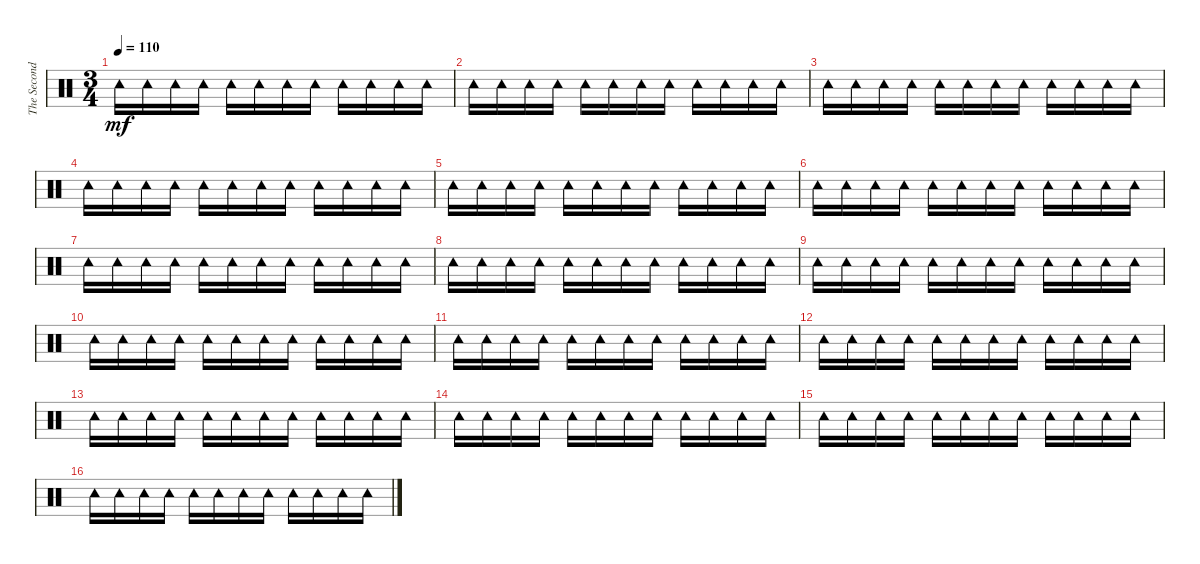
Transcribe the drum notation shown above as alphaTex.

\track ("The Second Drummer" "The Second") {instrument percussion}
\staff {score}
\articulation defaults
\ts (3 4)
\tempo 110
\clef neutral
\ks c "Tambourine (hit)".16{dy mf} "Tambourine (hit)".16 "Tambourine (hit)".16 "Tambourine (hit)".16 "Tambourine (hit)".16 "Tambourine (hit)".16 "Tambourine (hit)".16 "Tambourine (hit)".16 "Tambourine (hit)".16 "Tambourine (hit)".16 "Tambourine (hit)".16 "Tambourine (hit)".16
|
"Tambourine (hit)".16 "Tambourine (hit)".16 "Tambourine (hit)".16 "Tambourine (hit)".16 "Tambourine (hit)".16 "Tambourine (hit)".16 "Tambourine (hit)".16 "Tambourine (hit)".16 "Tambourine (hit)".16 "Tambourine (hit)".16 "Tambourine (hit)".16 "Tambourine (hit)".16 |
"Tambourine (hit)".16 "Tambourine (hit)".16 "Tambourine (hit)".16 "Tambourine (hit)".16 "Tambourine (hit)".16 "Tambourine (hit)".16 "Tambourine (hit)".16 "Tambourine (hit)".16 "Tambourine (hit)".16 "Tambourine (hit)".16 "Tambourine (hit)".16 "Tambourine (hit)".16 |
"Tambourine (hit)".16 "Tambourine (hit)".16 "Tambourine (hit)".16 "Tambourine (hit)".16 "Tambourine (hit)".16 "Tambourine (hit)".16 "Tambourine (hit)".16 "Tambourine (hit)".16 "Tambourine (hit)".16 "Tambourine (hit)".16 "Tambourine (hit)".16 "Tambourine (hit)".16 |
"Tambourine (hit)".16 "Tambourine (hit)".16 "Tambourine (hit)".16 "Tambourine (hit)".16 "Tambourine (hit)".16 "Tambourine (hit)".16 "Tambourine (hit)".16 "Tambourine (hit)".16 "Tambourine (hit)".16 "Tambourine (hit)".16 "Tambourine (hit)".16 "Tambourine (hit)".16 |
"Tambourine (hit)".16 "Tambourine (hit)".16 "Tambourine (hit)".16 "Tambourine (hit)".16 "Tambourine (hit)".16 "Tambourine (hit)".16 "Tambourine (hit)".16 "Tambourine (hit)".16 "Tambourine (hit)".16 "Tambourine (hit)".16 "Tambourine (hit)".16 "Tambourine (hit)".16 |
"Tambourine (hit)".16 "Tambourine (hit)".16 "Tambourine (hit)".16 "Tambourine (hit)".16 "Tambourine (hit)".16 "Tambourine (hit)".16 "Tambourine (hit)".16 "Tambourine (hit)".16 "Tambourine (hit)".16 "Tambourine (hit)".16 "Tambourine (hit)".16 "Tambourine (hit)".16 |
"Tambourine (hit)".16 "Tambourine (hit)".16 "Tambourine (hit)".16 "Tambourine (hit)".16 "Tambourine (hit)".16 "Tambourine (hit)".16 "Tambourine (hit)".16 "Tambourine (hit)".16 "Tambourine (hit)".16 "Tambourine (hit)".16 "Tambourine (hit)".16 "Tambourine (hit)".16 |
"Tambourine (hit)".16 "Tambourine (hit)".16 "Tambourine (hit)".16 "Tambourine (hit)".16 "Tambourine (hit)".16 "Tambourine (hit)".16 "Tambourine (hit)".16 "Tambourine (hit)".16 "Tambourine (hit)".16 "Tambourine (hit)".16 "Tambourine (hit)".16 "Tambourine (hit)".16 |
"Tambourine (hit)".16 "Tambourine (hit)".16 "Tambourine (hit)".16 "Tambourine (hit)".16 "Tambourine (hit)".16 "Tambourine (hit)".16 "Tambourine (hit)".16 "Tambourine (hit)".16 "Tambourine (hit)".16 "Tambourine (hit)".16 "Tambourine (hit)".16 "Tambourine (hit)".16 |
"Tambourine (hit)".16 "Tambourine (hit)".16 "Tambourine (hit)".16 "Tambourine (hit)".16 "Tambourine (hit)".16 "Tambourine (hit)".16 "Tambourine (hit)".16 "Tambourine (hit)".16 "Tambourine (hit)".16 "Tambourine (hit)".16 "Tambourine (hit)".16 "Tambourine (hit)".16 |
"Tambourine (hit)".16 "Tambourine (hit)".16 "Tambourine (hit)".16 "Tambourine (hit)".16 "Tambourine (hit)".16 "Tambourine (hit)".16 "Tambourine (hit)".16 "Tambourine (hit)".16 "Tambourine (hit)".16 "Tambourine (hit)".16 "Tambourine (hit)".16 "Tambourine (hit)".16 |
"Tambourine (hit)".16 "Tambourine (hit)".16 "Tambourine (hit)".16 "Tambourine (hit)".16 "Tambourine (hit)".16 "Tambourine (hit)".16 "Tambourine (hit)".16 "Tambourine (hit)".16 "Tambourine (hit)".16 "Tambourine (hit)".16 "Tambourine (hit)".16 "Tambourine (hit)".16 |
"Tambourine (hit)".16 "Tambourine (hit)".16 "Tambourine (hit)".16 "Tambourine (hit)".16 "Tambourine (hit)".16 "Tambourine (hit)".16 "Tambourine (hit)".16 "Tambourine (hit)".16 "Tambourine (hit)".16 "Tambourine (hit)".16 "Tambourine (hit)".16 "Tambourine (hit)".16 |
"Tambourine (hit)".16 "Tambourine (hit)".16 "Tambourine (hit)".16 "Tambourine (hit)".16 "Tambourine (hit)".16 "Tambourine (hit)".16 "Tambourine (hit)".16 "Tambourine (hit)".16 "Tambourine (hit)".16 "Tambourine (hit)".16 "Tambourine (hit)".16 "Tambourine (hit)".16 |
"Tambourine (hit)".16 "Tambourine (hit)".16 "Tambourine (hit)".16 "Tambourine (hit)".16 "Tambourine (hit)".16 "Tambourine (hit)".16 "Tambourine (hit)".16 "Tambourine (hit)".16 "Tambourine (hit)".16 "Tambourine (hit)".16 "Tambourine (hit)".16 "Tambourine (hit)".16
